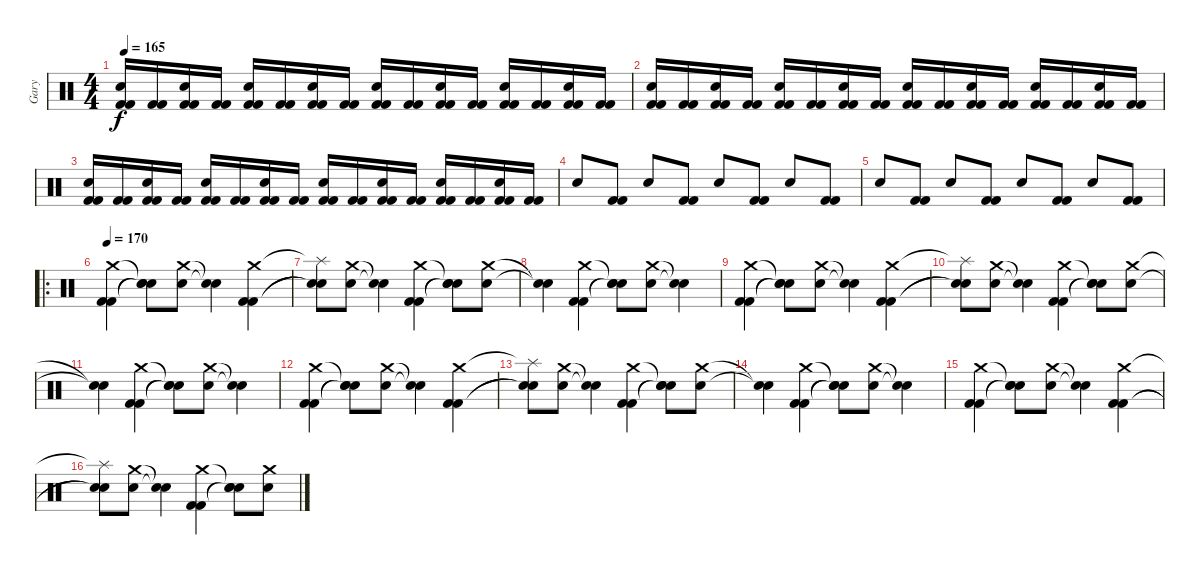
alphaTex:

\track ("Gary" "Gary") {instrument percussion}
\staff {score}
\articulation defaults
\ts (4 4)
\tempo 165
\clef neutral
\ks c
("Kick (hit) 2" "Snare (hit) 2" "Kick (hit) 2").16{dy f} ("Kick (hit) 2" "Kick (hit) 2").16 ("Kick (hit) 2" "Snare (hit) 2" "Kick (hit) 2").16 ("Kick (hit) 2" "Kick (hit) 2").16 ("Kick (hit) 2" "Snare (hit) 2" "Kick (hit) 2").16 ("Kick (hit) 2" "Kick (hit) 2").16 ("Kick (hit) 2" "Snare (hit) 2" "Kick (hit) 2").16 ("Kick (hit) 2" "Kick (hit) 2").16 ("Kick (hit) 2" "Snare (hit) 2" "Kick (hit) 2").16 ("Kick (hit) 2" "Kick (hit) 2").16 ("Kick (hit) 2" "Snare (hit) 2" "Kick (hit) 2").16 ("Kick (hit) 2" "Kick (hit) 2").16 ("Kick (hit) 2" "Snare (hit) 2" "Kick (hit) 2").16 ("Kick (hit) 2" "Kick (hit) 2").16 ("Kick (hit) 2" "Snare (hit) 2" "Kick (hit) 2").16 ("Kick (hit) 2" "Kick (hit) 2").16 |
("Kick (hit) 2" "Snare (hit) 2" "Kick (hit) 2").16 ("Kick (hit) 2" "Kick (hit) 2").16 ("Kick (hit) 2" "Snare (hit) 2" "Kick (hit) 2").16 ("Kick (hit) 2" "Kick (hit) 2").16 ("Kick (hit) 2" "Snare (hit) 2" "Kick (hit) 2").16 ("Kick (hit) 2" "Kick (hit) 2").16 ("Kick (hit) 2" "Snare (hit) 2" "Kick (hit) 2").16 ("Kick (hit) 2" "Kick (hit) 2").16 ("Kick (hit) 2" "Snare (hit) 2" "Kick (hit) 2").16 ("Kick (hit) 2" "Kick (hit) 2").16 ("Kick (hit) 2" "Snare (hit) 2" "Kick (hit) 2").16 ("Kick (hit) 2" "Kick (hit) 2").16 ("Kick (hit) 2" "Snare (hit) 2" "Kick (hit) 2").16 ("Kick (hit) 2" "Kick (hit) 2").16 ("Kick (hit) 2" "Snare (hit) 2" "Kick (hit) 2").16 ("Kick (hit) 2" "Kick (hit) 2").16 |
("Kick (hit) 2" "Snare (hit) 2" "Kick (hit) 2").16 ("Kick (hit) 2" "Kick (hit) 2").16 ("Kick (hit) 2" "Snare (hit) 2" "Kick (hit) 2").16 ("Kick (hit) 2" "Kick (hit) 2").16 ("Kick (hit) 2" "Snare (hit) 2" "Kick (hit) 2").16 ("Kick (hit) 2" "Kick (hit) 2").16 ("Kick (hit) 2" "Snare (hit) 2" "Kick (hit) 2").16 ("Kick (hit) 2" "Kick (hit) 2").16 ("Kick (hit) 2" "Snare (hit) 2" "Kick (hit) 2").16 ("Kick (hit) 2" "Kick (hit) 2").16 ("Kick (hit) 2" "Snare (hit) 2" "Kick (hit) 2").16 ("Kick (hit) 2" "Kick (hit) 2").16 ("Kick (hit) 2" "Snare (hit) 2" "Kick (hit) 2").16 ("Kick (hit) 2" "Kick (hit) 2").16 ("Kick (hit) 2" "Snare (hit) 2" "Kick (hit) 2").16 ("Kick (hit) 2" "Kick (hit) 2").16 |
"Snare (hit) 2".8 ("Kick (hit) 2" "Kick (hit) 2").8 "Snare (hit) 2".8 ("Kick (hit) 2" "Kick (hit) 2").8 "Snare (hit) 2".8 ("Kick (hit) 2" "Kick (hit) 2").8 "Snare (hit) 2".8 ("Kick (hit) 2" "Kick (hit) 2").8 |
"Snare (hit) 2".8 ("Kick (hit) 2" "Kick (hit) 2").8 "Snare (hit) 2".8 ("Kick (hit) 2" "Kick (hit) 2").8 "Snare (hit) 2".8 ("Kick (hit) 2" "Kick (hit) 2").8 "Snare (hit) 2".8 ("Kick (hit) 2" "Kick (hit) 2").8 |
\ro
\tempo 170
("Crash medium (hit)" "Kick (hit) 2" "Kick (hit) 2").4 ("Snare (hit)"{t} "Snare (hit)"{t} "Snare (hit)"{t}).8 ("Crash medium (hit)" "Snare (hit) 2").8 ("Snare (hit)"{t} "Snare (hit)"{t}).4 ("Crash medium (hit)" "Kick (hit) 2" "Kick (hit) 2").4 |
("Splash (hit)"{t} "Snare (hit)"{t} "Snare (hit)"{t}).8 ("Crash medium (hit)" "Snare (hit) 2").8 ("Snare (hit)"{t} "Snare (hit)"{t}).4 ("Crash medium (hit)" "Kick (hit) 2" "Kick (hit) 2").4 ("Snare (hit)"{t} "Snare (hit)"{t} "Snare (hit)"{t}).8 ("Crash medium (hit)" "Snare (hit) 2").8 |
("Snare (hit)"{t} "Snare (hit)"{t}).4 ("Crash medium (hit)" "Kick (hit) 2" "Kick (hit) 2").4 ("Snare (hit)"{t} "Snare (hit)"{t} "Snare (hit)"{t}).8 ("Crash medium (hit)" "Snare (hit) 2").8 ("Snare (hit)"{t} "Snare (hit)"{t}).4 |
("Crash medium (hit)" "Kick (hit) 2" "Kick (hit) 2").4 ("Snare (hit)"{t} "Snare (hit)"{t} "Snare (hit)"{t}).8 ("Crash medium (hit)" "Snare (hit) 2").8 ("Snare (hit)"{t} "Snare (hit)"{t}).4 ("Crash medium (hit)" "Kick (hit) 2" "Kick (hit) 2").4 |
("Splash (hit)"{t} "Snare (hit)"{t} "Snare (hit)"{t}).8 ("Crash medium (hit)" "Snare (hit) 2").8 ("Snare (hit)"{t} "Snare (hit)"{t}).4 ("Crash medium (hit)" "Kick (hit) 2" "Kick (hit) 2").4 ("Snare (hit)"{t} "Snare (hit)"{t} "Snare (hit)"{t}).8 ("Crash medium (hit)" "Snare (hit) 2").8 |
("Snare (hit)"{t} "Snare (hit)"{t}).4 ("Crash medium (hit)" "Kick (hit) 2" "Kick (hit) 2").4 ("Snare (hit)"{t} "Snare (hit)"{t} "Snare (hit)"{t}).8 ("Crash medium (hit)" "Snare (hit) 2").8 ("Snare (hit)"{t} "Snare (hit)"{t}).4 |
("Crash medium (hit)" "Kick (hit) 2" "Kick (hit) 2").4 ("Snare (hit)"{t} "Snare (hit)"{t} "Snare (hit)"{t}).8 ("Crash medium (hit)" "Snare (hit) 2").8 ("Snare (hit)"{t} "Snare (hit)"{t}).4 ("Crash medium (hit)" "Kick (hit) 2" "Kick (hit) 2").4 |
("Splash (hit)"{t} "Snare (hit)"{t} "Snare (hit)"{t}).8 ("Crash medium (hit)" "Snare (hit) 2").8 ("Snare (hit)"{t} "Snare (hit)"{t}).4 ("Crash medium (hit)" "Kick (hit) 2" "Kick (hit) 2").4 ("Snare (hit)"{t} "Snare (hit)"{t} "Snare (hit)"{t}).8 ("Crash medium (hit)" "Snare (hit) 2").8 |
("Snare (hit)"{t} "Snare (hit)"{t}).4 ("Crash medium (hit)" "Kick (hit) 2" "Kick (hit) 2").4 ("Snare (hit)"{t} "Snare (hit)"{t} "Snare (hit)"{t}).8 ("Crash medium (hit)" "Snare (hit) 2").8 ("Snare (hit)"{t} "Snare (hit)"{t}).4 |
("Crash medium (hit)" "Kick (hit) 2" "Kick (hit) 2").4 ("Snare (hit)"{t} "Snare (hit)"{t} "Snare (hit)"{t}).8 ("Crash medium (hit)" "Snare (hit) 2").8 ("Snare (hit)"{t} "Snare (hit)"{t}).4 ("Crash medium (hit)" "Kick (hit) 2" "Kick (hit) 2").4 |
("Splash (hit)"{t} "Snare (hit)"{t} "Snare (hit)"{t}).8 ("Crash medium (hit)" "Snare (hit) 2").8 ("Snare (hit)"{t} "Snare (hit)"{t}).4 ("Crash medium (hit)" "Kick (hit) 2" "Kick (hit) 2").4 ("Snare (hit)"{t} "Snare (hit)"{t} "Snare (hit)"{t}).8 ("Crash medium (hit)" "Snare (hit) 2").8
